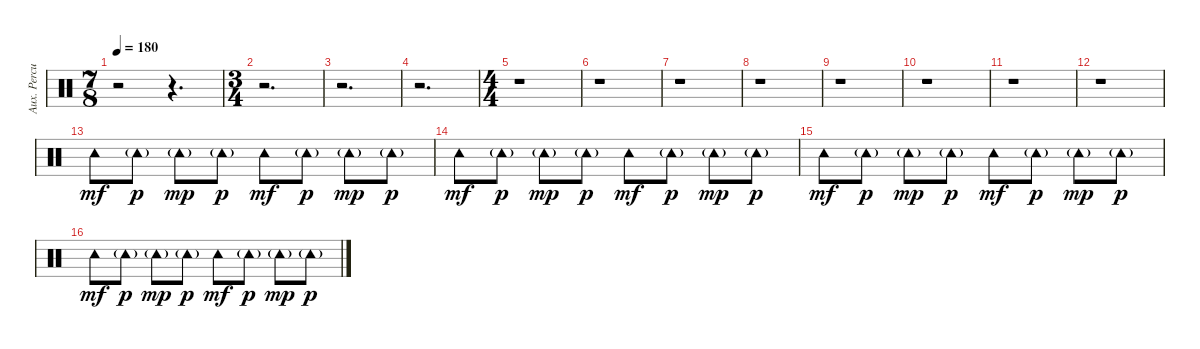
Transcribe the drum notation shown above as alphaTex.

\track ("Aux. Percussion" "Aux. Percu") {instrument percussion}
\staff {score}
\articulation defaults
\ts (7 8)
\tempo 180
\clef neutral
\ks c
r.2{dy mf} r.4{d} |
\ts (3 4)
r.2{d} |
r.2{d} |
r.2{d} |
\ts (4 4)
r.1 |
r.1 |
r.1 |
r.1 |
r.1 |
r.1 |
r.1 |
r.1 |
"Tambourine (hit)".8 "Tambourine (hit)"{g}.8{dy p} "Tambourine (hit)"{g}.8{dy mp} "Tambourine (hit)"{g}.8{dy p} "Tambourine (hit)".8{dy mf} "Tambourine (hit)"{g}.8{dy p} "Tambourine (hit)"{g}.8{dy mp} "Tambourine (hit)"{g}.8{dy p} |
"Tambourine (hit)".8{dy mf} "Tambourine (hit)"{g}.8{dy p} "Tambourine (hit)"{g}.8{dy mp} "Tambourine (hit)"{g}.8{dy p} "Tambourine (hit)".8{dy mf} "Tambourine (hit)"{g}.8{dy p} "Tambourine (hit)"{g}.8{dy mp} "Tambourine (hit)"{g}.8{dy p} |
"Tambourine (hit)".8{dy mf} "Tambourine (hit)"{g}.8{dy p} "Tambourine (hit)"{g}.8{dy mp} "Tambourine (hit)"{g}.8{dy p} "Tambourine (hit)".8{dy mf} "Tambourine (hit)"{g}.8{dy p} "Tambourine (hit)"{g}.8{dy mp} "Tambourine (hit)"{g}.8{dy p} |
"Tambourine (hit)".8{dy mf} "Tambourine (hit)"{g}.8{dy p} "Tambourine (hit)"{g}.8{dy mp} "Tambourine (hit)"{g}.8{dy p} "Tambourine (hit)".8{dy mf} "Tambourine (hit)"{g}.8{dy p} "Tambourine (hit)"{g}.8{dy mp} "Tambourine (hit)"{g}.8{dy p}
